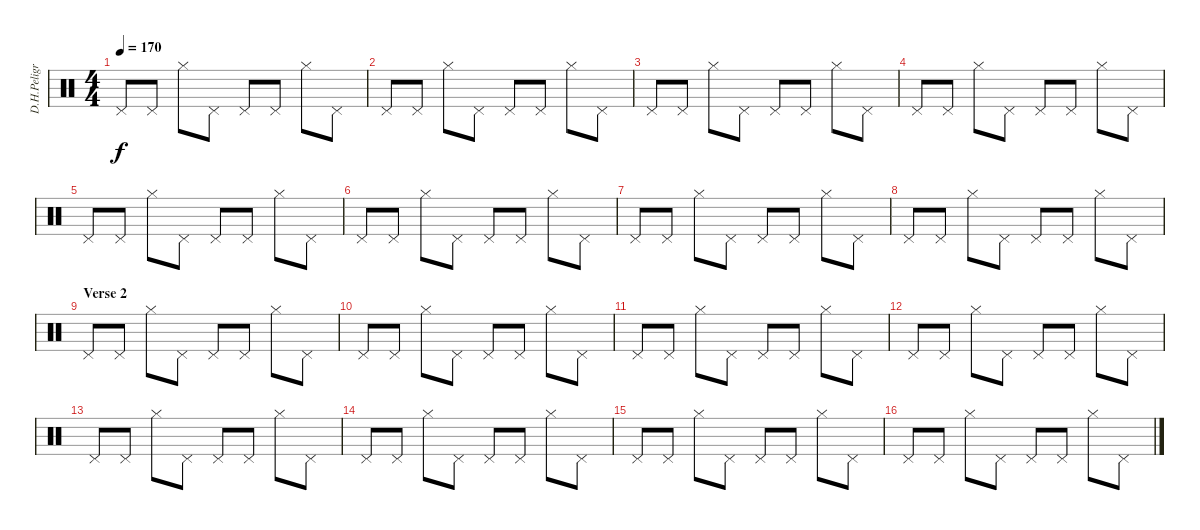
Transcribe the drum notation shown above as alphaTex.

\track ("D.H.Peligro" "D.H.Peligr") {instrument percussion}
\staff {score}
\articulation defaults
\ts (4 4)
\tempo 170
\clef neutral
\ks c "Pedal Hi-Hat (hit)".8{dy f} "Pedal Hi-Hat (hit)".8 "Hi-Hat (closed)".8 "Pedal Hi-Hat (hit)".8 "Pedal Hi-Hat (hit)".8 "Pedal Hi-Hat (hit)".8 "Hi-Hat (closed)".8 "Pedal Hi-Hat (hit)".8
|
"Pedal Hi-Hat (hit)".8 "Pedal Hi-Hat (hit)".8 "Hi-Hat (closed)".8 "Pedal Hi-Hat (hit)".8 "Pedal Hi-Hat (hit)".8 "Pedal Hi-Hat (hit)".8 "Hi-Hat (closed)".8 "Pedal Hi-Hat (hit)".8 |
"Pedal Hi-Hat (hit)".8 "Pedal Hi-Hat (hit)".8 "Hi-Hat (closed)".8 "Pedal Hi-Hat (hit)".8 "Pedal Hi-Hat (hit)".8 "Pedal Hi-Hat (hit)".8 "Hi-Hat (closed)".8 "Pedal Hi-Hat (hit)".8 |
"Pedal Hi-Hat (hit)".8 "Pedal Hi-Hat (hit)".8 "Hi-Hat (closed)".8 "Pedal Hi-Hat (hit)".8 "Pedal Hi-Hat (hit)".8 "Pedal Hi-Hat (hit)".8 "Hi-Hat (closed)".8 "Pedal Hi-Hat (hit)".8 |
"Pedal Hi-Hat (hit)".8 "Pedal Hi-Hat (hit)".8 "Hi-Hat (closed)".8 "Pedal Hi-Hat (hit)".8 "Pedal Hi-Hat (hit)".8 "Pedal Hi-Hat (hit)".8 "Hi-Hat (closed)".8 "Pedal Hi-Hat (hit)".8 |
"Pedal Hi-Hat (hit)".8 "Pedal Hi-Hat (hit)".8 "Hi-Hat (closed)".8 "Pedal Hi-Hat (hit)".8 "Pedal Hi-Hat (hit)".8 "Pedal Hi-Hat (hit)".8 "Hi-Hat (closed)".8 "Pedal Hi-Hat (hit)".8 |
"Pedal Hi-Hat (hit)".8 "Pedal Hi-Hat (hit)".8 "Hi-Hat (closed)".8 "Pedal Hi-Hat (hit)".8 "Pedal Hi-Hat (hit)".8 "Pedal Hi-Hat (hit)".8 "Hi-Hat (closed)".8 "Pedal Hi-Hat (hit)".8 |
"Pedal Hi-Hat (hit)".8 "Pedal Hi-Hat (hit)".8 "Hi-Hat (closed)".8 "Pedal Hi-Hat (hit)".8 "Pedal Hi-Hat (hit)".8 "Pedal Hi-Hat (hit)".8 "Hi-Hat (closed)".8 "Pedal Hi-Hat (hit)".8 |
\section ("" "Verse 2")
"Pedal Hi-Hat (hit)".8 "Pedal Hi-Hat (hit)".8 "Hi-Hat (closed)".8 "Pedal Hi-Hat (hit)".8 "Pedal Hi-Hat (hit)".8 "Pedal Hi-Hat (hit)".8 "Hi-Hat (closed)".8 "Pedal Hi-Hat (hit)".8 |
"Pedal Hi-Hat (hit)".8 "Pedal Hi-Hat (hit)".8 "Hi-Hat (closed)".8 "Pedal Hi-Hat (hit)".8 "Pedal Hi-Hat (hit)".8 "Pedal Hi-Hat (hit)".8 "Hi-Hat (closed)".8 "Pedal Hi-Hat (hit)".8 |
"Pedal Hi-Hat (hit)".8 "Pedal Hi-Hat (hit)".8 "Hi-Hat (closed)".8 "Pedal Hi-Hat (hit)".8 "Pedal Hi-Hat (hit)".8 "Pedal Hi-Hat (hit)".8 "Hi-Hat (closed)".8 "Pedal Hi-Hat (hit)".8 |
"Pedal Hi-Hat (hit)".8 "Pedal Hi-Hat (hit)".8 "Hi-Hat (closed)".8 "Pedal Hi-Hat (hit)".8 "Pedal Hi-Hat (hit)".8 "Pedal Hi-Hat (hit)".8 "Hi-Hat (closed)".8 "Pedal Hi-Hat (hit)".8 |
"Pedal Hi-Hat (hit)".8 "Pedal Hi-Hat (hit)".8 "Hi-Hat (closed)".8 "Pedal Hi-Hat (hit)".8 "Pedal Hi-Hat (hit)".8 "Pedal Hi-Hat (hit)".8 "Hi-Hat (closed)".8 "Pedal Hi-Hat (hit)".8 |
"Pedal Hi-Hat (hit)".8 "Pedal Hi-Hat (hit)".8 "Hi-Hat (closed)".8 "Pedal Hi-Hat (hit)".8 "Pedal Hi-Hat (hit)".8 "Pedal Hi-Hat (hit)".8 "Hi-Hat (closed)".8 "Pedal Hi-Hat (hit)".8 |
"Pedal Hi-Hat (hit)".8 "Pedal Hi-Hat (hit)".8 "Hi-Hat (closed)".8 "Pedal Hi-Hat (hit)".8 "Pedal Hi-Hat (hit)".8 "Pedal Hi-Hat (hit)".8 "Hi-Hat (closed)".8 "Pedal Hi-Hat (hit)".8 |
"Pedal Hi-Hat (hit)".8 "Pedal Hi-Hat (hit)".8 "Hi-Hat (closed)".8 "Pedal Hi-Hat (hit)".8 "Pedal Hi-Hat (hit)".8 "Pedal Hi-Hat (hit)".8 "Hi-Hat (closed)".8 "Pedal Hi-Hat (hit)".8
